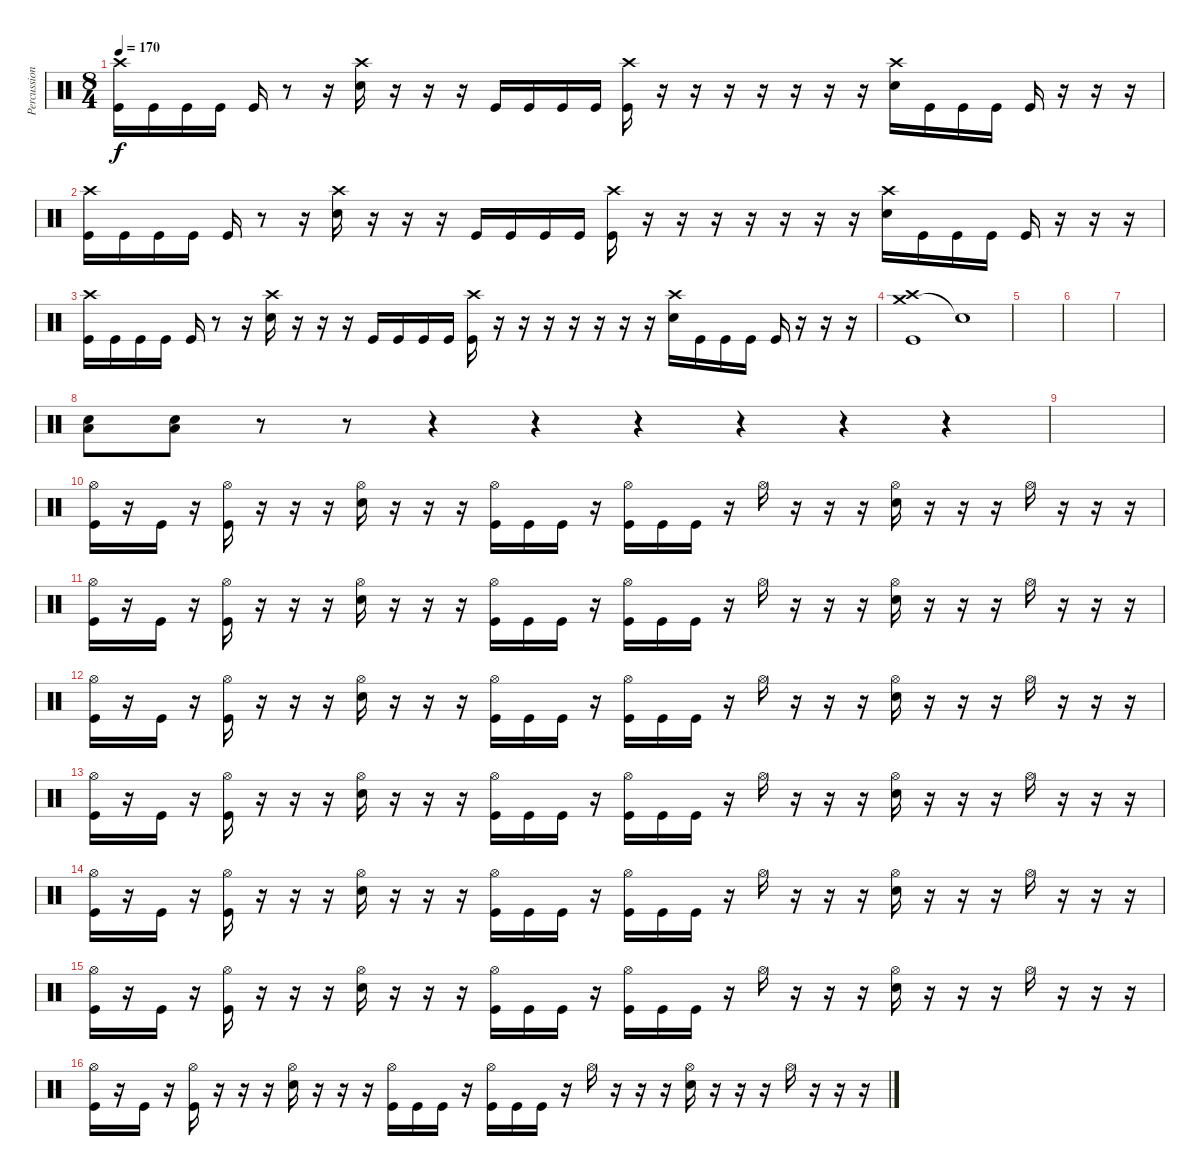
\track ("Percussion" "Percussion") {instrument percussion}
\staff {score}
\articulation defaults
\ts (8 4)
\tempo 170
\clef neutral
\ks c
("Crash high (hit)" "Kick (hit)").16{dy f} "Kick (hit)".16 "Kick (hit)".16 "Kick (hit)".16 "Kick (hit)".16 r.8 r.16 ("Crash high (hit)" "Snare (hit) 2").16 r.16 r.16 r.16 "Kick (hit)".16 "Kick (hit)".16 "Kick (hit)".16 "Kick (hit)".16 ("Crash high (hit)" "Kick (hit)").16 r.16 r.16 r.16 r.16 r.16 r.16 r.16 ("Crash high (hit)" "Snare (hit) 2").16 "Kick (hit)".16 "Kick (hit)".16 "Kick (hit)".16 "Kick (hit)".16 r.16 r.16 r.16 |
("Crash high (hit)" "Kick (hit)").16 "Kick (hit)".16 "Kick (hit)".16 "Kick (hit)".16 "Kick (hit)".16 r.8 r.16 ("Crash high (hit)" "Snare (hit) 2").16 r.16 r.16 r.16 "Kick (hit)".16 "Kick (hit)".16 "Kick (hit)".16 "Kick (hit)".16 ("Crash high (hit)" "Kick (hit)").16 r.16 r.16 r.16 r.16 r.16 r.16 r.16 ("Crash high (hit)" "Snare (hit) 2").16 "Kick (hit)".16 "Kick (hit)".16 "Kick (hit)".16 "Kick (hit)".16 r.16 r.16 r.16 |
("Crash high (hit)" "Kick (hit)").16 "Kick (hit)".16 "Kick (hit)".16 "Kick (hit)".16 "Kick (hit)".16 r.8 r.16 ("Crash high (hit)" "Snare (hit) 2").16 r.16 r.16 r.16 "Kick (hit)".16 "Kick (hit)".16 "Kick (hit)".16 "Kick (hit)".16 ("Crash high (hit)" "Kick (hit)").16 r.16 r.16 r.16 r.16 r.16 r.16 r.16 ("Crash high (hit)" "Snare (hit) 2").16 "Kick (hit)".16 "Kick (hit)".16 "Kick (hit)".16 "Kick (hit)".16 r.16 r.16 r.16 |
("Crash medium (hit)" "Crash high (hit)" "Kick (hit)").1 "Snare (hit)"{t}.1 |
|
|
|
("Low Floor Tom (hit)" "Snare (hit) 2").8 ("Low Floor Tom (hit)" "Snare (hit) 2").8 r.8 r.8 r.4 r.4 r.4 r.4 r.4 r.4 |
|
("Hi-Hat (open)" "Kick (hit)").16 r.16 "Kick (hit)".16 r.16 ("Hi-Hat (open)" "Kick (hit)").16 r.16 r.16 r.16 ("Hi-Hat (open)" "Snare (hit) 2").16 r.16 r.16 r.16 ("Hi-Hat (open)" "Kick (hit)").16 "Kick (hit)".16 "Kick (hit)".16 r.16 ("Hi-Hat (open)" "Kick (hit)").16 "Kick (hit)".16 "Kick (hit)".16 r.16 "Hi-Hat (open)".16 r.16 r.16 r.16 ("Hi-Hat (open)" "Snare (hit) 2").16 r.16 r.16 r.16 "Hi-Hat (open)".16 r.16 r.16 r.16 |
("Hi-Hat (open)" "Kick (hit)").16 r.16 "Kick (hit)".16 r.16 ("Hi-Hat (open)" "Kick (hit)").16 r.16 r.16 r.16 ("Hi-Hat (open)" "Snare (hit) 2").16 r.16 r.16 r.16 ("Hi-Hat (open)" "Kick (hit)").16 "Kick (hit)".16 "Kick (hit)".16 r.16 ("Hi-Hat (open)" "Kick (hit)").16 "Kick (hit)".16 "Kick (hit)".16 r.16 "Hi-Hat (open)".16 r.16 r.16 r.16 ("Hi-Hat (open)" "Snare (hit) 2").16 r.16 r.16 r.16 "Hi-Hat (open)".16 r.16 r.16 r.16 |
("Hi-Hat (open)" "Kick (hit)").16 r.16 "Kick (hit)".16 r.16 ("Hi-Hat (open)" "Kick (hit)").16 r.16 r.16 r.16 ("Hi-Hat (open)" "Snare (hit) 2").16 r.16 r.16 r.16 ("Hi-Hat (open)" "Kick (hit)").16 "Kick (hit)".16 "Kick (hit)".16 r.16 ("Hi-Hat (open)" "Kick (hit)").16 "Kick (hit)".16 "Kick (hit)".16 r.16 "Hi-Hat (open)".16 r.16 r.16 r.16 ("Hi-Hat (open)" "Snare (hit) 2").16 r.16 r.16 r.16 "Hi-Hat (open)".16 r.16 r.16 r.16 |
("Hi-Hat (open)" "Kick (hit)").16 r.16 "Kick (hit)".16 r.16 ("Hi-Hat (open)" "Kick (hit)").16 r.16 r.16 r.16 ("Hi-Hat (open)" "Snare (hit) 2").16 r.16 r.16 r.16 ("Hi-Hat (open)" "Kick (hit)").16 "Kick (hit)".16 "Kick (hit)".16 r.16 ("Hi-Hat (open)" "Kick (hit)").16 "Kick (hit)".16 "Kick (hit)".16 r.16 "Hi-Hat (open)".16 r.16 r.16 r.16 ("Hi-Hat (open)" "Snare (hit) 2").16 r.16 r.16 r.16 "Hi-Hat (open)".16 r.16 r.16 r.16 |
("Hi-Hat (open)" "Kick (hit)").16 r.16 "Kick (hit)".16 r.16 ("Hi-Hat (open)" "Kick (hit)").16 r.16 r.16 r.16 ("Hi-Hat (open)" "Snare (hit) 2").16 r.16 r.16 r.16 ("Hi-Hat (open)" "Kick (hit)").16 "Kick (hit)".16 "Kick (hit)".16 r.16 ("Hi-Hat (open)" "Kick (hit)").16 "Kick (hit)".16 "Kick (hit)".16 r.16 "Hi-Hat (open)".16 r.16 r.16 r.16 ("Hi-Hat (open)" "Snare (hit) 2").16 r.16 r.16 r.16 "Hi-Hat (open)".16 r.16 r.16 r.16 |
("Hi-Hat (open)" "Kick (hit)").16 r.16 "Kick (hit)".16 r.16 ("Hi-Hat (open)" "Kick (hit)").16 r.16 r.16 r.16 ("Hi-Hat (open)" "Snare (hit) 2").16 r.16 r.16 r.16 ("Hi-Hat (open)" "Kick (hit)").16 "Kick (hit)".16 "Kick (hit)".16 r.16 ("Hi-Hat (open)" "Kick (hit)").16 "Kick (hit)".16 "Kick (hit)".16 r.16 "Hi-Hat (open)".16 r.16 r.16 r.16 ("Hi-Hat (open)" "Snare (hit) 2").16 r.16 r.16 r.16 "Hi-Hat (open)".16 r.16 r.16 r.16 |
("Hi-Hat (open)" "Kick (hit)").16 r.16 "Kick (hit)".16 r.16 ("Hi-Hat (open)" "Kick (hit)").16 r.16 r.16 r.16 ("Hi-Hat (open)" "Snare (hit) 2").16 r.16 r.16 r.16 ("Hi-Hat (open)" "Kick (hit)").16 "Kick (hit)".16 "Kick (hit)".16 r.16 ("Hi-Hat (open)" "Kick (hit)").16 "Kick (hit)".16 "Kick (hit)".16 r.16 "Hi-Hat (open)".16 r.16 r.16 r.16 ("Hi-Hat (open)" "Snare (hit) 2").16 r.16 r.16 r.16 "Hi-Hat (open)".16 r.16 r.16 r.16
